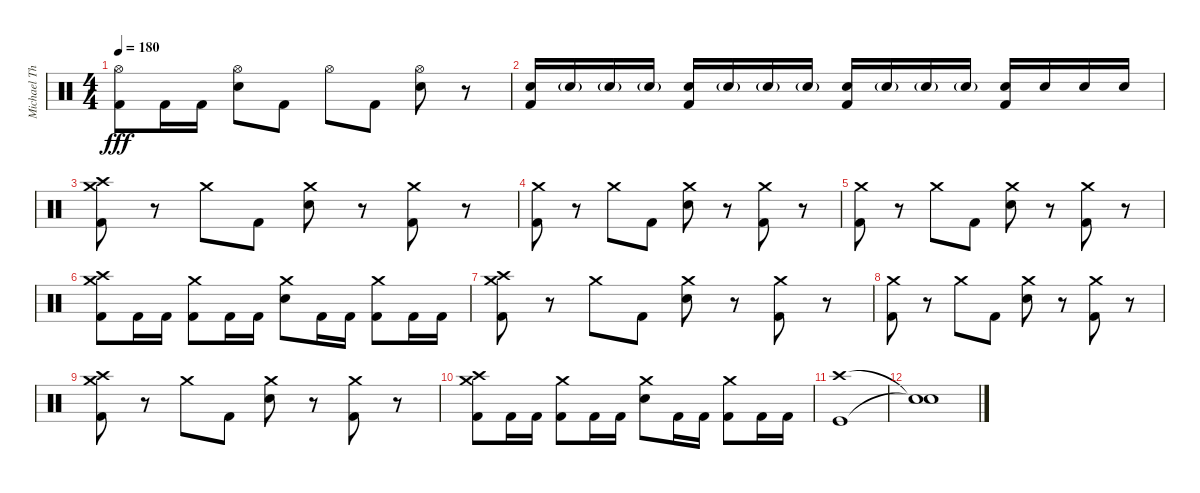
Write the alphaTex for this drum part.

\track ("Michael Thomas" "Michael Th") {instrument percussion}
\staff {score}
\articulation defaults
\ts (4 4)
\tempo 180
\clef neutral
\ks c
("Hi-Hat (open)" "Kick (hit) 2").8{dy fff} "Kick (hit) 2".16 "Kick (hit) 2".16 ("Hi-Hat (open)" "Electric Snare (hit)").8 "Kick (hit) 2".8 "Hi-Hat (open)".8 "Kick (hit) 2".8 ("Hi-Hat (open)" "Electric Snare (hit)").8 r.8 |
("Electric Snare (hit)" "Kick (hit) 2").16 "Electric Snare (hit)"{g}.16 "Electric Snare (hit)"{g}.16 "Electric Snare (hit)"{g}.16 ("Electric Snare (hit)" "Kick (hit) 2").16 "Electric Snare (hit)"{g}.16 "Electric Snare (hit)"{g}.16 "Electric Snare (hit)"{g}.16 ("Electric Snare (hit)" "Kick (hit) 2").16 "Electric Snare (hit)"{g}.16 "Electric Snare (hit)"{g}.16 "Electric Snare (hit)"{g}.16 ("Electric Snare (hit)" "Kick (hit) 2").16 "Electric Snare (hit)".16 "Electric Snare (hit)".16 "Electric Snare (hit)".16 |
("Crash high (hit)" "Crash medium (hit)" "Kick (hit) 2").8 r.8 "Crash medium (hit)".8 "Kick (hit) 2".8 ("Crash medium (hit)" "Electric Snare (hit)").8 r.8 ("Crash medium (hit)" "Kick (hit) 2").8 r.8 |
("Crash medium (hit)" "Kick (hit) 2").8 r.8 "Crash medium (hit)".8 "Kick (hit) 2".8 ("Crash medium (hit)" "Electric Snare (hit)").8 r.8 ("Crash medium (hit)" "Kick (hit) 2").8 r.8 |
("Crash medium (hit)" "Kick (hit) 2").8 r.8 "Crash medium (hit)".8 "Kick (hit) 2".8 ("Crash medium (hit)" "Electric Snare (hit)").8 r.8 ("Crash medium (hit)" "Kick (hit) 2").8 r.8 |
("Crash high (hit)" "Crash medium (hit)" "Kick (hit) 2").8 "Kick (hit) 2".16 "Kick (hit) 2".16 ("Crash medium (hit)" "Kick (hit) 2").8 "Kick (hit) 2".16 "Kick (hit) 2".16 ("Crash medium (hit)" "Electric Snare (hit)").8 "Kick (hit) 2".16 "Kick (hit) 2".16 ("Crash medium (hit)" "Kick (hit) 2").8 "Kick (hit) 2".16 "Kick (hit) 2".16 |
("Crash high (hit)" "Crash medium (hit)" "Kick (hit) 2").8 r.8 "Crash medium (hit)".8 "Kick (hit) 2".8 ("Crash medium (hit)" "Electric Snare (hit)").8 r.8 ("Crash medium (hit)" "Kick (hit) 2").8 r.8 |
("Crash medium (hit)" "Kick (hit) 2").8 r.8 "Crash medium (hit)".8 "Kick (hit) 2".8 ("Crash medium (hit)" "Electric Snare (hit)").8 r.8 ("Crash medium (hit)" "Kick (hit) 2").8 r.8 |
("Crash high (hit)" "Crash medium (hit)" "Kick (hit) 2").8 r.8 "Crash medium (hit)".8 "Kick (hit) 2".8 ("Crash medium (hit)" "Electric Snare (hit)").8 r.8 ("Crash medium (hit)" "Kick (hit) 2").8 r.8 |
("Crash high (hit)" "Crash medium (hit)" "Kick (hit) 2").8 "Kick (hit) 2".16 "Kick (hit) 2".16 ("Crash medium (hit)" "Kick (hit) 2").8 "Kick (hit) 2".16 "Kick (hit) 2".16 ("Crash medium (hit)" "Electric Snare (hit)").8 "Kick (hit) 2".16 "Kick (hit) 2".16 ("Crash medium (hit)" "Kick (hit) 2").8 "Kick (hit) 2".16 "Kick (hit) 2".16 |
("Crash high (hit)" "Kick (hit)").1 |
("Snare (hit)"{t} "Snare (hit)"{t}).1
